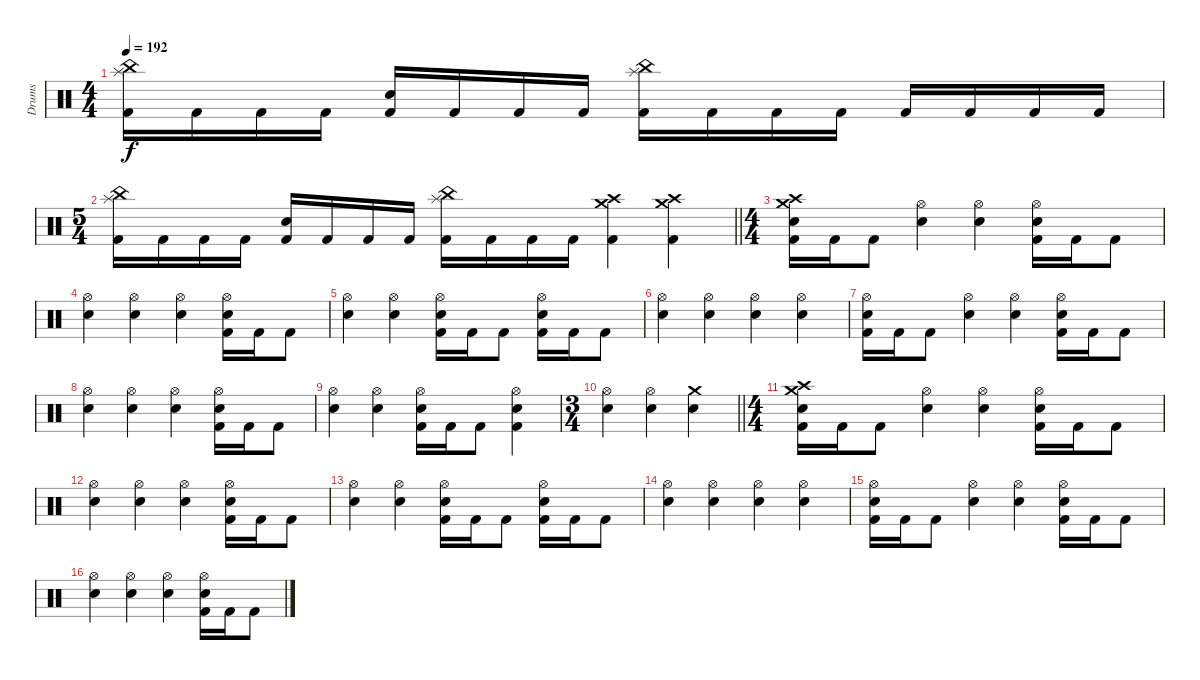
\track ("Drums" "Drums") {instrument percussion}
\staff {score}
\articulation defaults
\ts (4 4)
\tempo 192
\clef neutral
\ks c
("China (hit)" "Splash (hit)" "Kick (hit) 2").16{dy f} "Kick (hit) 2".16 "Kick (hit) 2".16 "Kick (hit) 2".16 ("Electric Snare (hit)" "Kick (hit) 2").16 "Kick (hit) 2".16 "Kick (hit) 2".16 "Kick (hit) 2".16 ("China (hit)" "Splash (hit)" "Kick (hit) 2").16 "Kick (hit) 2".16 "Kick (hit) 2".16 "Kick (hit) 2".16 "Kick (hit) 2".16 "Kick (hit) 2".16 "Kick (hit) 2".16 "Kick (hit) 2".16 |
\ts (5 4)
\barLineRight lightlight
("China (hit)" "Splash (hit)" "Kick (hit) 2").16 "Kick (hit) 2".16 "Kick (hit) 2".16 "Kick (hit) 2".16 ("Electric Snare (hit)" "Kick (hit) 2").16 "Kick (hit) 2".16 "Kick (hit) 2".16 "Kick (hit) 2".16 ("China (hit)" "Splash (hit)" "Kick (hit) 2").16 "Kick (hit) 2".16 "Kick (hit) 2".16 "Kick (hit) 2".16 ("Crash high (hit)" "Crash medium (hit)" "Kick (hit) 2").4 ("Crash high (hit)" "Crash medium (hit)" "Kick (hit) 2").4 |
\ts (4 4)
("Crash high (hit)" "Crash medium (hit)" "Electric Snare (hit)" "Kick (hit) 2").16 "Kick (hit) 2".16 "Kick (hit) 2".8 ("Hi-Hat (open)" "Electric Snare (hit)").4 ("Hi-Hat (open)" "Electric Snare (hit)").4 ("Hi-Hat (open)" "Electric Snare (hit)" "Kick (hit) 2").16 "Kick (hit) 2".16 "Kick (hit) 2".8 |
("Hi-Hat (open)" "Electric Snare (hit)").4 ("Hi-Hat (open)" "Electric Snare (hit)").4 ("Hi-Hat (open)" "Electric Snare (hit)").4 ("Hi-Hat (open)" "Electric Snare (hit)" "Kick (hit) 2").16 "Kick (hit) 2".16 "Kick (hit) 2".8 |
("Hi-Hat (open)" "Electric Snare (hit)").4 ("Hi-Hat (open)" "Electric Snare (hit)").4 ("Hi-Hat (open)" "Electric Snare (hit)" "Kick (hit) 2").16 "Kick (hit) 2".16 "Kick (hit) 2".8 ("Hi-Hat (open)" "Electric Snare (hit)" "Kick (hit) 2").16 "Kick (hit) 2".16 "Kick (hit) 2".8 |
("Hi-Hat (open)" "Electric Snare (hit)").4 ("Hi-Hat (open)" "Electric Snare (hit)").4 ("Hi-Hat (open)" "Electric Snare (hit)").4 ("Hi-Hat (open)" "Electric Snare (hit)").4 |
("Hi-Hat (open)" "Electric Snare (hit)" "Kick (hit) 2").16 "Kick (hit) 2".16 "Kick (hit) 2".8 ("Hi-Hat (open)" "Electric Snare (hit)").4 ("Hi-Hat (open)" "Electric Snare (hit)").4 ("Hi-Hat (open)" "Electric Snare (hit)" "Kick (hit) 2").16 "Kick (hit) 2".16 "Kick (hit) 2".8 |
("Hi-Hat (open)" "Electric Snare (hit)").4 ("Hi-Hat (open)" "Electric Snare (hit)").4 ("Hi-Hat (open)" "Electric Snare (hit)").4 ("Hi-Hat (open)" "Electric Snare (hit)" "Kick (hit) 2").16 "Kick (hit) 2".16 "Kick (hit) 2".8 |
("Hi-Hat (open)" "Electric Snare (hit)").4 ("Hi-Hat (open)" "Electric Snare (hit)").4 ("Hi-Hat (open)" "Electric Snare (hit)" "Kick (hit) 2").16 "Kick (hit) 2".16 "Kick (hit) 2".8 ("Hi-Hat (open)" "Electric Snare (hit)" "Kick (hit) 2").4 |
\ts (3 4)
\barLineRight lightlight
("Hi-Hat (open)" "Electric Snare (hit)").4 ("Hi-Hat (open)" "Electric Snare (hit)").4 ("Crash medium (hit)" "Electric Snare (hit)").4 |
\ts (4 4)
("Crash high (hit)" "Crash medium (hit)" "Electric Snare (hit)" "Kick (hit) 2").16 "Kick (hit) 2".16 "Kick (hit) 2".8 ("Hi-Hat (open)" "Electric Snare (hit)").4 ("Hi-Hat (open)" "Electric Snare (hit)").4 ("Hi-Hat (open)" "Electric Snare (hit)" "Kick (hit) 2").16 "Kick (hit) 2".16 "Kick (hit) 2".8 |
("Hi-Hat (open)" "Electric Snare (hit)").4 ("Hi-Hat (open)" "Electric Snare (hit)").4 ("Hi-Hat (open)" "Electric Snare (hit)").4 ("Hi-Hat (open)" "Electric Snare (hit)" "Kick (hit) 2").16 "Kick (hit) 2".16 "Kick (hit) 2".8 |
("Hi-Hat (open)" "Electric Snare (hit)").4 ("Hi-Hat (open)" "Electric Snare (hit)").4 ("Hi-Hat (open)" "Electric Snare (hit)" "Kick (hit) 2").16 "Kick (hit) 2".16 "Kick (hit) 2".8 ("Hi-Hat (open)" "Electric Snare (hit)" "Kick (hit) 2").16 "Kick (hit) 2".16 "Kick (hit) 2".8 |
("Hi-Hat (open)" "Electric Snare (hit)").4 ("Hi-Hat (open)" "Electric Snare (hit)").4 ("Hi-Hat (open)" "Electric Snare (hit)").4 ("Hi-Hat (open)" "Electric Snare (hit)").4 |
("Hi-Hat (open)" "Electric Snare (hit)" "Kick (hit) 2").16 "Kick (hit) 2".16 "Kick (hit) 2".8 ("Hi-Hat (open)" "Electric Snare (hit)").4 ("Hi-Hat (open)" "Electric Snare (hit)").4 ("Hi-Hat (open)" "Electric Snare (hit)" "Kick (hit) 2").16 "Kick (hit) 2".16 "Kick (hit) 2".8 |
("Hi-Hat (open)" "Electric Snare (hit)").4 ("Hi-Hat (open)" "Electric Snare (hit)").4 ("Hi-Hat (open)" "Electric Snare (hit)").4 ("Hi-Hat (open)" "Electric Snare (hit)" "Kick (hit) 2").16 "Kick (hit) 2".16 "Kick (hit) 2".8
